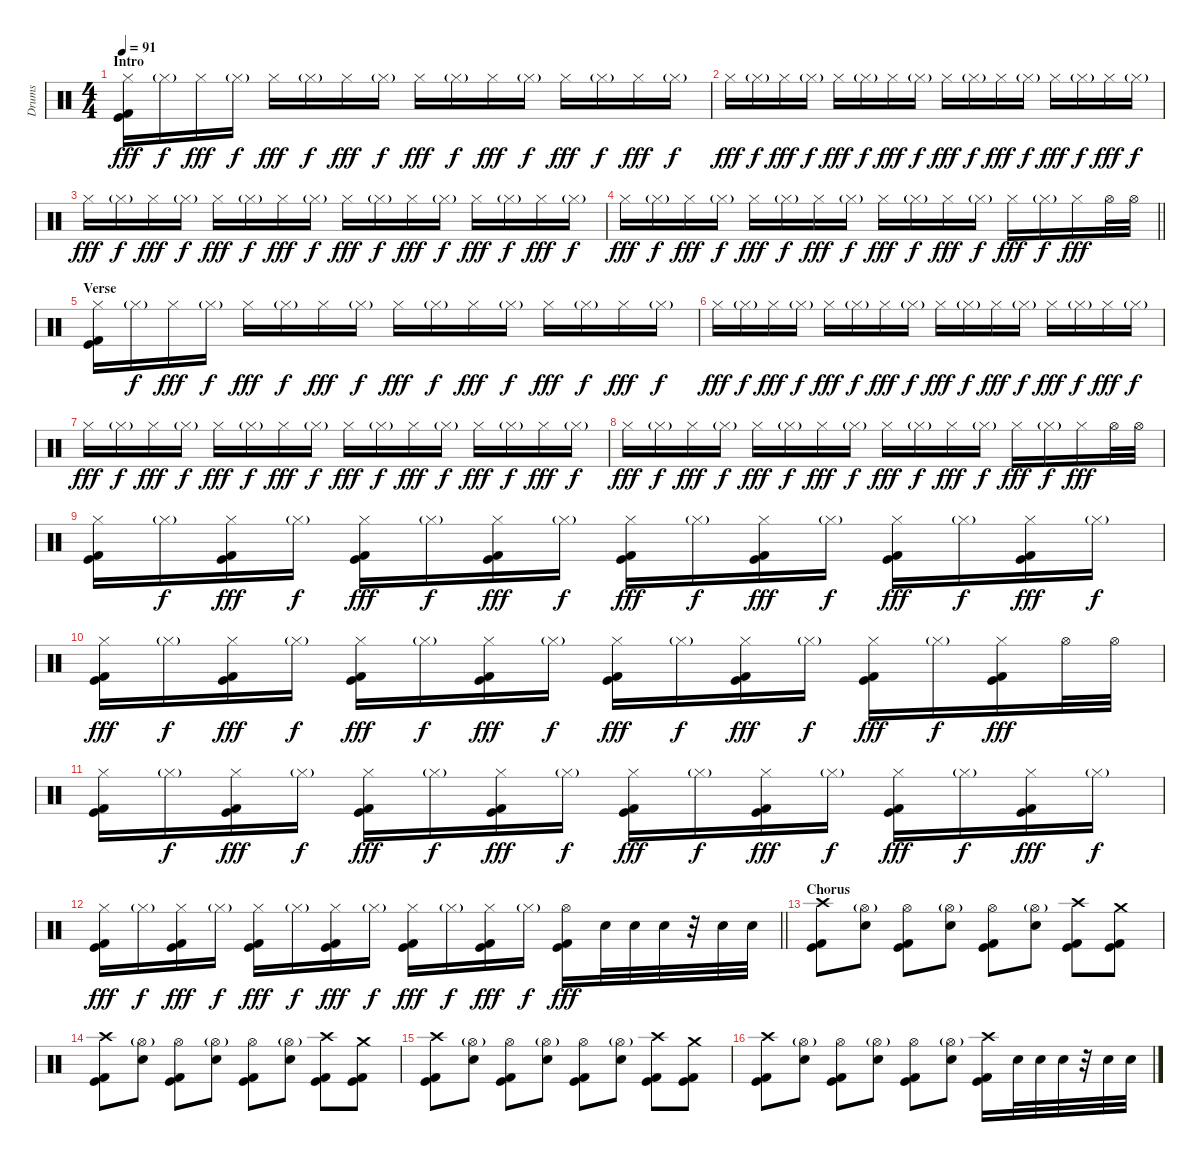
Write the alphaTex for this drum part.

\track ("Drums" "Drums") {instrument percussion}
\staff {score}
\articulation defaults
\ts (4 4)
\section ("" "Intro")
\tempo 91
\clef neutral
\ks c
("Hi-Hat (closed)" "Kick (hit)" "Kick (hit) 2").16{dy fff} "Hi-Hat (closed)"{g}.16{dy f} "Hi-Hat (closed)".16{dy fff} "Hi-Hat (closed)"{g}.16{dy f} "Hi-Hat (closed)".16{dy fff} "Hi-Hat (closed)"{g}.16{dy f} "Hi-Hat (closed)".16{dy fff} "Hi-Hat (closed)"{g}.16{dy f} "Hi-Hat (closed)".16{dy fff} "Hi-Hat (closed)"{g}.16{dy f} "Hi-Hat (closed)".16{dy fff} "Hi-Hat (closed)"{g}.16{dy f} "Hi-Hat (closed)".16{dy fff} "Hi-Hat (closed)"{g}.16{dy f} "Hi-Hat (closed)".16{dy fff} "Hi-Hat (closed)"{g}.16{dy f} |
"Hi-Hat (closed)".16{dy fff} "Hi-Hat (closed)"{g}.16{dy f} "Hi-Hat (closed)".16{dy fff} "Hi-Hat (closed)"{g}.16{dy f} "Hi-Hat (closed)".16{dy fff} "Hi-Hat (closed)"{g}.16{dy f} "Hi-Hat (closed)".16{dy fff} "Hi-Hat (closed)"{g}.16{dy f} "Hi-Hat (closed)".16{dy fff} "Hi-Hat (closed)"{g}.16{dy f} "Hi-Hat (closed)".16{dy fff} "Hi-Hat (closed)"{g}.16{dy f} "Hi-Hat (closed)".16{dy fff} "Hi-Hat (closed)"{g}.16{dy f} "Hi-Hat (closed)".16{dy fff} "Hi-Hat (closed)"{g}.16{dy f} |
"Hi-Hat (closed)".16{dy fff} "Hi-Hat (closed)"{g}.16{dy f} "Hi-Hat (closed)".16{dy fff} "Hi-Hat (closed)"{g}.16{dy f} "Hi-Hat (closed)".16{dy fff} "Hi-Hat (closed)"{g}.16{dy f} "Hi-Hat (closed)".16{dy fff} "Hi-Hat (closed)"{g}.16{dy f} "Hi-Hat (closed)".16{dy fff} "Hi-Hat (closed)"{g}.16{dy f} "Hi-Hat (closed)".16{dy fff} "Hi-Hat (closed)"{g}.16{dy f} "Hi-Hat (closed)".16{dy fff} "Hi-Hat (closed)"{g}.16{dy f} "Hi-Hat (closed)".16{dy fff} "Hi-Hat (closed)"{g}.16{dy f} |
\barLineRight lightlight "Hi-Hat (closed)".16{dy fff} "Hi-Hat (closed)"{g}.16{dy f} "Hi-Hat (closed)".16{dy fff} "Hi-Hat (closed)"{g}.16{dy f} "Hi-Hat (closed)".16{dy fff} "Hi-Hat (closed)"{g}.16{dy f} "Hi-Hat (closed)".16{dy fff} "Hi-Hat (closed)"{g}.16{dy f} "Hi-Hat (closed)".16{dy fff} "Hi-Hat (closed)"{g}.16{dy f} "Hi-Hat (closed)".16{dy fff} "Hi-Hat (closed)"{g}.16{dy f} "Hi-Hat (closed)".16{dy fff} "Hi-Hat (closed)"{g}.16{dy f} "Hi-Hat (closed)".16{dy fff} "Hi-Hat (open)".32 "Hi-Hat (open)".32
|
\section ("" "Verse")
("Hi-Hat (closed)" "Kick (hit)" "Kick (hit) 2").16 "Hi-Hat (closed)"{g}.16{dy f} "Hi-Hat (closed)".16{dy fff} "Hi-Hat (closed)"{g}.16{dy f} "Hi-Hat (closed)".16{dy fff} "Hi-Hat (closed)"{g}.16{dy f} "Hi-Hat (closed)".16{dy fff} "Hi-Hat (closed)"{g}.16{dy f} "Hi-Hat (closed)".16{dy fff} "Hi-Hat (closed)"{g}.16{dy f} "Hi-Hat (closed)".16{dy fff} "Hi-Hat (closed)"{g}.16{dy f} "Hi-Hat (closed)".16{dy fff} "Hi-Hat (closed)"{g}.16{dy f} "Hi-Hat (closed)".16{dy fff} "Hi-Hat (closed)"{g}.16{dy f} |
"Hi-Hat (closed)".16{dy fff} "Hi-Hat (closed)"{g}.16{dy f} "Hi-Hat (closed)".16{dy fff} "Hi-Hat (closed)"{g}.16{dy f} "Hi-Hat (closed)".16{dy fff} "Hi-Hat (closed)"{g}.16{dy f} "Hi-Hat (closed)".16{dy fff} "Hi-Hat (closed)"{g}.16{dy f} "Hi-Hat (closed)".16{dy fff} "Hi-Hat (closed)"{g}.16{dy f} "Hi-Hat (closed)".16{dy fff} "Hi-Hat (closed)"{g}.16{dy f} "Hi-Hat (closed)".16{dy fff} "Hi-Hat (closed)"{g}.16{dy f} "Hi-Hat (closed)".16{dy fff} "Hi-Hat (closed)"{g}.16{dy f} |
"Hi-Hat (closed)".16{dy fff} "Hi-Hat (closed)"{g}.16{dy f} "Hi-Hat (closed)".16{dy fff} "Hi-Hat (closed)"{g}.16{dy f} "Hi-Hat (closed)".16{dy fff} "Hi-Hat (closed)"{g}.16{dy f} "Hi-Hat (closed)".16{dy fff} "Hi-Hat (closed)"{g}.16{dy f} "Hi-Hat (closed)".16{dy fff} "Hi-Hat (closed)"{g}.16{dy f} "Hi-Hat (closed)".16{dy fff} "Hi-Hat (closed)"{g}.16{dy f} "Hi-Hat (closed)".16{dy fff} "Hi-Hat (closed)"{g}.16{dy f} "Hi-Hat (closed)".16{dy fff} "Hi-Hat (closed)"{g}.16{dy f} |
"Hi-Hat (closed)".16{dy fff} "Hi-Hat (closed)"{g}.16{dy f} "Hi-Hat (closed)".16{dy fff} "Hi-Hat (closed)"{g}.16{dy f} "Hi-Hat (closed)".16{dy fff} "Hi-Hat (closed)"{g}.16{dy f} "Hi-Hat (closed)".16{dy fff} "Hi-Hat (closed)"{g}.16{dy f} "Hi-Hat (closed)".16{dy fff} "Hi-Hat (closed)"{g}.16{dy f} "Hi-Hat (closed)".16{dy fff} "Hi-Hat (closed)"{g}.16{dy f} "Hi-Hat (closed)".16{dy fff} "Hi-Hat (closed)"{g}.16{dy f} "Hi-Hat (closed)".16{dy fff} "Hi-Hat (open)".32 "Hi-Hat (open)".32 |
("Hi-Hat (closed)" "Kick (hit)" "Kick (hit) 2").16 "Hi-Hat (closed)"{g}.16{dy f} ("Hi-Hat (closed)" "Kick (hit)" "Kick (hit) 2").16{dy fff} "Hi-Hat (closed)"{g}.16{dy f} ("Hi-Hat (closed)" "Kick (hit)" "Kick (hit) 2").16{dy fff} "Hi-Hat (closed)"{g}.16{dy f} ("Hi-Hat (closed)" "Kick (hit)" "Kick (hit) 2").16{dy fff} "Hi-Hat (closed)"{g}.16{dy f} ("Hi-Hat (closed)" "Kick (hit)" "Kick (hit) 2").16{dy fff} "Hi-Hat (closed)"{g}.16{dy f} ("Hi-Hat (closed)" "Kick (hit)" "Kick (hit) 2").16{dy fff} "Hi-Hat (closed)"{g}.16{dy f} ("Hi-Hat (closed)" "Kick (hit)" "Kick (hit) 2").16{dy fff} "Hi-Hat (closed)"{g}.16{dy f} ("Hi-Hat (closed)" "Kick (hit)" "Kick (hit) 2").16{dy fff} "Hi-Hat (closed)"{g}.16{dy f} |
("Hi-Hat (closed)" "Kick (hit)" "Kick (hit) 2").16{dy fff} "Hi-Hat (closed)"{g}.16{dy f} ("Hi-Hat (closed)" "Kick (hit)" "Kick (hit) 2").16{dy fff} "Hi-Hat (closed)"{g}.16{dy f} ("Hi-Hat (closed)" "Kick (hit)" "Kick (hit) 2").16{dy fff} "Hi-Hat (closed)"{g}.16{dy f} ("Hi-Hat (closed)" "Kick (hit)" "Kick (hit) 2").16{dy fff} "Hi-Hat (closed)"{g}.16{dy f} ("Hi-Hat (closed)" "Kick (hit)" "Kick (hit) 2").16{dy fff} "Hi-Hat (closed)"{g}.16{dy f} ("Hi-Hat (closed)" "Kick (hit)" "Kick (hit) 2").16{dy fff} "Hi-Hat (closed)"{g}.16{dy f} ("Hi-Hat (closed)" "Kick (hit)" "Kick (hit) 2").16{dy fff} "Hi-Hat (closed)"{g}.16{dy f} ("Hi-Hat (closed)" "Kick (hit)" "Kick (hit) 2").16{dy fff} "Hi-Hat (open)".32 "Hi-Hat (open)".32 |
("Hi-Hat (closed)" "Kick (hit)" "Kick (hit) 2").16 "Hi-Hat (closed)"{g}.16{dy f} ("Hi-Hat (closed)" "Kick (hit)" "Kick (hit) 2").16{dy fff} "Hi-Hat (closed)"{g}.16{dy f} ("Hi-Hat (closed)" "Kick (hit)" "Kick (hit) 2").16{dy fff} "Hi-Hat (closed)"{g}.16{dy f} ("Hi-Hat (closed)" "Kick (hit)" "Kick (hit) 2").16{dy fff} "Hi-Hat (closed)"{g}.16{dy f} ("Hi-Hat (closed)" "Kick (hit)" "Kick (hit) 2").16{dy fff} "Hi-Hat (closed)"{g}.16{dy f} ("Hi-Hat (closed)" "Kick (hit)" "Kick (hit) 2").16{dy fff} "Hi-Hat (closed)"{g}.16{dy f} ("Hi-Hat (closed)" "Kick (hit)" "Kick (hit) 2").16{dy fff} "Hi-Hat (closed)"{g}.16{dy f} ("Hi-Hat (closed)" "Kick (hit)" "Kick (hit) 2").16{dy fff} "Hi-Hat (closed)"{g}.16{dy f} |
\barLineRight lightlight
("Hi-Hat (closed)" "Kick (hit)" "Kick (hit) 2").16{dy fff} "Hi-Hat (closed)"{g}.16{dy f} ("Hi-Hat (closed)" "Kick (hit)" "Kick (hit) 2").16{dy fff} "Hi-Hat (closed)"{g}.16{dy f} ("Hi-Hat (closed)" "Kick (hit)" "Kick (hit) 2").16{dy fff} "Hi-Hat (closed)"{g}.16{dy f} ("Hi-Hat (closed)" "Kick (hit)" "Kick (hit) 2").16{dy fff} "Hi-Hat (closed)"{g}.16{dy f} ("Hi-Hat (closed)" "Kick (hit)" "Kick (hit) 2").16{dy fff} "Hi-Hat (closed)"{g}.16{dy f} ("Hi-Hat (closed)" "Kick (hit)" "Kick (hit) 2").16{dy fff} "Hi-Hat (closed)"{g}.16{dy f} ("Hi-Hat (open)" "Kick (hit)" "Kick (hit) 2").16{dy fff} "Electric Snare (hit)".32 "Electric Snare (hit)".32 "Electric Snare (hit)".32 r.32 "Electric Snare (hit)".32 "Electric Snare (hit)".32 |
\section ("" "Chorus")
("Crash high (hit)" "Kick (hit)" "Kick (hit) 2").8 ("Hi-Hat (open)"{g} "Electric Snare (hit)").8 ("Hi-Hat (open)" "Kick (hit)" "Kick (hit) 2").8 ("Hi-Hat (open)"{g} "Electric Snare (hit)").8 ("Hi-Hat (open)" "Kick (hit)" "Kick (hit) 2").8 ("Hi-Hat (open)"{g} "Electric Snare (hit)").8 ("Crash high (hit)" "Kick (hit)" "Kick (hit) 2").8 ("Crash medium (hit)" "Kick (hit)" "Kick (hit) 2").8 |
("Crash high (hit)" "Kick (hit)" "Kick (hit) 2").8 ("Hi-Hat (open)"{g} "Electric Snare (hit)").8 ("Hi-Hat (open)" "Kick (hit)" "Kick (hit) 2").8 ("Hi-Hat (open)"{g} "Electric Snare (hit)").8 ("Hi-Hat (open)" "Kick (hit)" "Kick (hit) 2").8 ("Hi-Hat (open)"{g} "Electric Snare (hit)").8 ("Crash high (hit)" "Kick (hit)" "Kick (hit) 2").8 ("Crash medium (hit)" "Kick (hit)" "Kick (hit) 2").8 |
("Crash high (hit)" "Kick (hit)" "Kick (hit) 2").8 ("Hi-Hat (open)"{g} "Electric Snare (hit)").8 ("Hi-Hat (open)" "Kick (hit)" "Kick (hit) 2").8 ("Hi-Hat (open)"{g} "Electric Snare (hit)").8 ("Hi-Hat (open)" "Kick (hit)" "Kick (hit) 2").8 ("Hi-Hat (open)"{g} "Electric Snare (hit)").8 ("Crash high (hit)" "Kick (hit)" "Kick (hit) 2").8 ("Crash medium (hit)" "Kick (hit)" "Kick (hit) 2").8 |
("Crash high (hit)" "Kick (hit)" "Kick (hit) 2").8 ("Hi-Hat (open)"{g} "Electric Snare (hit)").8 ("Hi-Hat (open)" "Kick (hit)" "Kick (hit) 2").8 ("Hi-Hat (open)"{g} "Electric Snare (hit)").8 ("Hi-Hat (open)" "Kick (hit)" "Kick (hit) 2").8 ("Hi-Hat (open)"{g} "Electric Snare (hit)").8 ("Crash high (hit)" "Kick (hit)" "Kick (hit) 2").16 "Electric Snare (hit)".32 "Electric Snare (hit)".32 "Electric Snare (hit)".32 r.32 "Electric Snare (hit)".32 "Electric Snare (hit)".32
